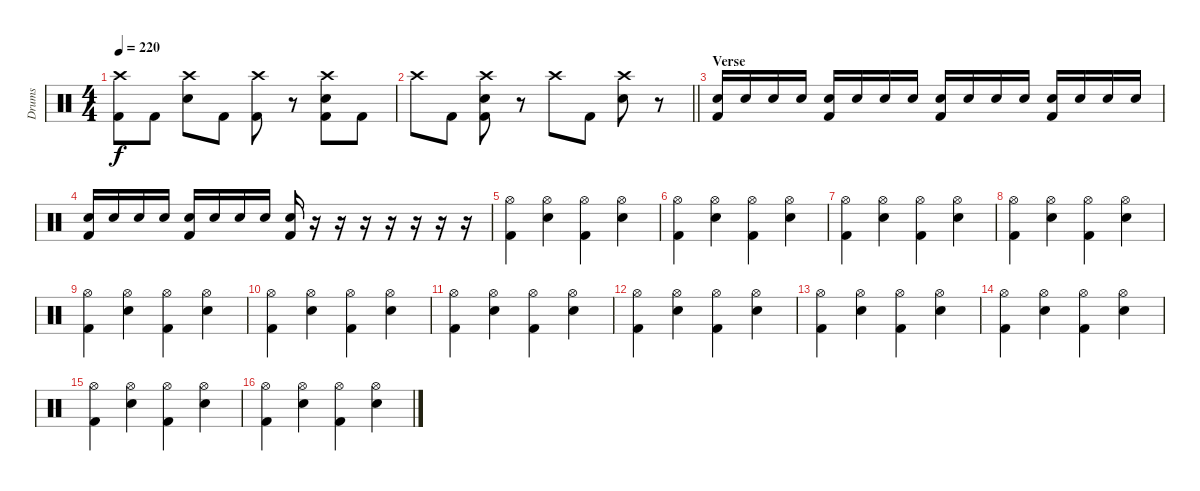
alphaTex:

\track ("Drums" "Drums") {instrument percussion}
\staff {score}
\articulation defaults
\ts (4 4)
\tempo 220
\clef neutral
\ks c
("Crash high (hit)" "Kick (hit) 2").8{dy f} "Kick (hit) 2".8 ("Crash high (hit)" "Electric Snare (hit)").8 "Kick (hit) 2".8 ("Crash high (hit)" "Kick (hit) 2").8 r.8 ("Crash high (hit)" "Electric Snare (hit)" "Kick (hit) 2").8 "Kick (hit) 2".8 |
\barLineRight lightlight "Crash high (hit)".8 "Kick (hit) 2".8
("Crash high (hit)" "Electric Snare (hit)" "Kick (hit) 2").8 r.8 "Crash high (hit)".8 "Kick (hit) 2".8 ("Crash high (hit)" "Electric Snare (hit)").8 r.8 |
\section ("" "Verse")
("Electric Snare (hit)" "Kick (hit) 2").16 "Electric Snare (hit)".16 "Electric Snare (hit)".16 "Electric Snare (hit)".16 ("Electric Snare (hit)" "Kick (hit) 2").16 "Electric Snare (hit)".16 "Electric Snare (hit)".16 "Electric Snare (hit)".16 ("Electric Snare (hit)" "Kick (hit) 2").16 "Electric Snare (hit)".16 "Electric Snare (hit)".16 "Electric Snare (hit)".16 ("Electric Snare (hit)" "Kick (hit) 2").16 "Electric Snare (hit)".16 "Electric Snare (hit)".16 "Electric Snare (hit)".16 |
("Electric Snare (hit)" "Kick (hit) 2").16 "Electric Snare (hit)".16 "Electric Snare (hit)".16 "Electric Snare (hit)".16 ("Electric Snare (hit)" "Kick (hit) 2").16 "Electric Snare (hit)".16 "Electric Snare (hit)".16 "Electric Snare (hit)".16 ("Electric Snare (hit)" "Kick (hit) 2").16 r.16 r.16 r.16 r.16 r.16 r.16 r.16 |
("Hi-Hat (open)" "Kick (hit) 2").4 ("Hi-Hat (open)" "Electric Snare (hit)").4 ("Hi-Hat (open)" "Kick (hit) 2").4 ("Hi-Hat (open)" "Electric Snare (hit)").4 |
("Hi-Hat (open)" "Kick (hit) 2").4 ("Hi-Hat (open)" "Electric Snare (hit)").4 ("Hi-Hat (open)" "Kick (hit) 2").4 ("Hi-Hat (open)" "Electric Snare (hit)").4 |
("Hi-Hat (open)" "Kick (hit) 2").4 ("Hi-Hat (open)" "Electric Snare (hit)").4 ("Hi-Hat (open)" "Kick (hit) 2").4 ("Hi-Hat (open)" "Electric Snare (hit)").4 |
("Hi-Hat (open)" "Kick (hit) 2").4 ("Hi-Hat (open)" "Electric Snare (hit)").4 ("Hi-Hat (open)" "Kick (hit) 2").4 ("Hi-Hat (open)" "Electric Snare (hit)").4 |
("Hi-Hat (open)" "Kick (hit) 2").4 ("Hi-Hat (open)" "Electric Snare (hit)").4 ("Hi-Hat (open)" "Kick (hit) 2").4 ("Hi-Hat (open)" "Electric Snare (hit)").4 |
("Hi-Hat (open)" "Kick (hit) 2").4 ("Hi-Hat (open)" "Electric Snare (hit)").4 ("Hi-Hat (open)" "Kick (hit) 2").4 ("Hi-Hat (open)" "Electric Snare (hit)").4 |
("Hi-Hat (open)" "Kick (hit) 2").4 ("Hi-Hat (open)" "Electric Snare (hit)").4 ("Hi-Hat (open)" "Kick (hit) 2").4 ("Hi-Hat (open)" "Electric Snare (hit)").4 |
("Hi-Hat (open)" "Kick (hit) 2").4 ("Hi-Hat (open)" "Electric Snare (hit)").4 ("Hi-Hat (open)" "Kick (hit) 2").4 ("Hi-Hat (open)" "Electric Snare (hit)").4 |
("Hi-Hat (open)" "Kick (hit) 2").4 ("Hi-Hat (open)" "Electric Snare (hit)").4 ("Hi-Hat (open)" "Kick (hit) 2").4 ("Hi-Hat (open)" "Electric Snare (hit)").4 |
("Hi-Hat (open)" "Kick (hit) 2").4 ("Hi-Hat (open)" "Electric Snare (hit)").4 ("Hi-Hat (open)" "Kick (hit) 2").4 ("Hi-Hat (open)" "Electric Snare (hit)").4 |
("Hi-Hat (open)" "Kick (hit) 2").4 ("Hi-Hat (open)" "Electric Snare (hit)").4 ("Hi-Hat (open)" "Kick (hit) 2").4 ("Hi-Hat (open)" "Electric Snare (hit)").4 |
("Hi-Hat (open)" "Kick (hit) 2").4 ("Hi-Hat (open)" "Electric Snare (hit)").4 ("Hi-Hat (open)" "Kick (hit) 2").4 ("Hi-Hat (open)" "Electric Snare (hit)").4
